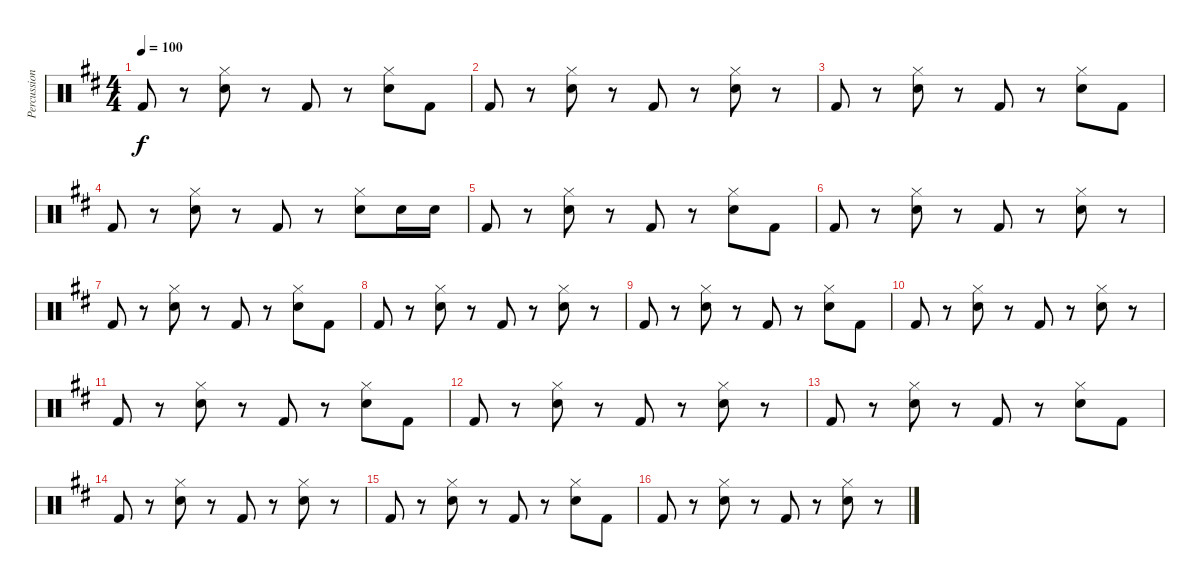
\track ("Percussion" "Percussion") {instrument percussion}
\staff {score}
\articulation defaults
\ts (4 4)
\tempo 100
\clef neutral
\ks d "Kick (hit) 2".8{dy f}
r.8 ("Hi-Hat (closed)" "Snare (hit) 2").8 r.8 "Kick (hit) 2".8 r.8 ("Hi-Hat (closed)" "Snare (hit) 2").8 "Kick (hit) 2".8 |
"Kick (hit) 2".8 r.8 ("Hi-Hat (closed)" "Snare (hit) 2").8 r.8 "Kick (hit) 2".8 r.8 ("Hi-Hat (closed)" "Snare (hit) 2").8 r.8 |
"Kick (hit) 2".8 r.8 ("Hi-Hat (closed)" "Snare (hit) 2").8 r.8 "Kick (hit) 2".8 r.8 ("Hi-Hat (closed)" "Snare (hit) 2").8 "Kick (hit) 2".8 |
"Kick (hit) 2".8 r.8 ("Hi-Hat (closed)" "Snare (hit) 2").8 r.8 "Kick (hit) 2".8 r.8 ("Hi-Hat (closed)" "Snare (hit) 2").8 "Snare (hit) 2".16 "Snare (hit) 2".16 |
"Kick (hit) 2".8 r.8 ("Hi-Hat (closed)" "Snare (hit) 2").8 r.8 "Kick (hit) 2".8 r.8 ("Hi-Hat (closed)" "Snare (hit) 2").8 "Kick (hit) 2".8 |
"Kick (hit) 2".8 r.8 ("Hi-Hat (closed)" "Snare (hit) 2").8 r.8 "Kick (hit) 2".8 r.8 ("Hi-Hat (closed)" "Snare (hit) 2").8 r.8 |
"Kick (hit) 2".8 r.8 ("Hi-Hat (closed)" "Snare (hit) 2").8 r.8 "Kick (hit) 2".8 r.8 ("Hi-Hat (closed)" "Snare (hit) 2").8 "Kick (hit) 2".8 |
"Kick (hit) 2".8 r.8 ("Hi-Hat (closed)" "Snare (hit) 2").8 r.8 "Kick (hit) 2".8 r.8 ("Hi-Hat (closed)" "Snare (hit) 2").8 r.8 |
"Kick (hit) 2".8 r.8 ("Hi-Hat (closed)" "Snare (hit) 2").8 r.8 "Kick (hit) 2".8 r.8 ("Hi-Hat (closed)" "Snare (hit) 2").8 "Kick (hit) 2".8 |
"Kick (hit) 2".8 r.8 ("Hi-Hat (closed)" "Snare (hit) 2").8 r.8 "Kick (hit) 2".8 r.8 ("Hi-Hat (closed)" "Snare (hit) 2").8 r.8 |
"Kick (hit) 2".8 r.8 ("Hi-Hat (closed)" "Snare (hit) 2").8 r.8 "Kick (hit) 2".8 r.8 ("Hi-Hat (closed)" "Snare (hit) 2").8 "Kick (hit) 2".8 |
"Kick (hit) 2".8 r.8 ("Hi-Hat (closed)" "Snare (hit) 2").8 r.8 "Kick (hit) 2".8 r.8 ("Hi-Hat (closed)" "Snare (hit) 2").8 r.8 |
"Kick (hit) 2".8 r.8 ("Hi-Hat (closed)" "Snare (hit) 2").8 r.8 "Kick (hit) 2".8 r.8 ("Hi-Hat (closed)" "Snare (hit) 2").8 "Kick (hit) 2".8 |
"Kick (hit) 2".8 r.8 ("Hi-Hat (closed)" "Snare (hit) 2").8 r.8 "Kick (hit) 2".8 r.8 ("Hi-Hat (closed)" "Snare (hit) 2").8 r.8 |
"Kick (hit) 2".8 r.8 ("Hi-Hat (closed)" "Snare (hit) 2").8 r.8 "Kick (hit) 2".8 r.8 ("Hi-Hat (closed)" "Snare (hit) 2").8 "Kick (hit) 2".8 |
"Kick (hit) 2".8 r.8 ("Hi-Hat (closed)" "Snare (hit) 2").8 r.8 "Kick (hit) 2".8 r.8 ("Hi-Hat (closed)" "Snare (hit) 2").8 r.8
